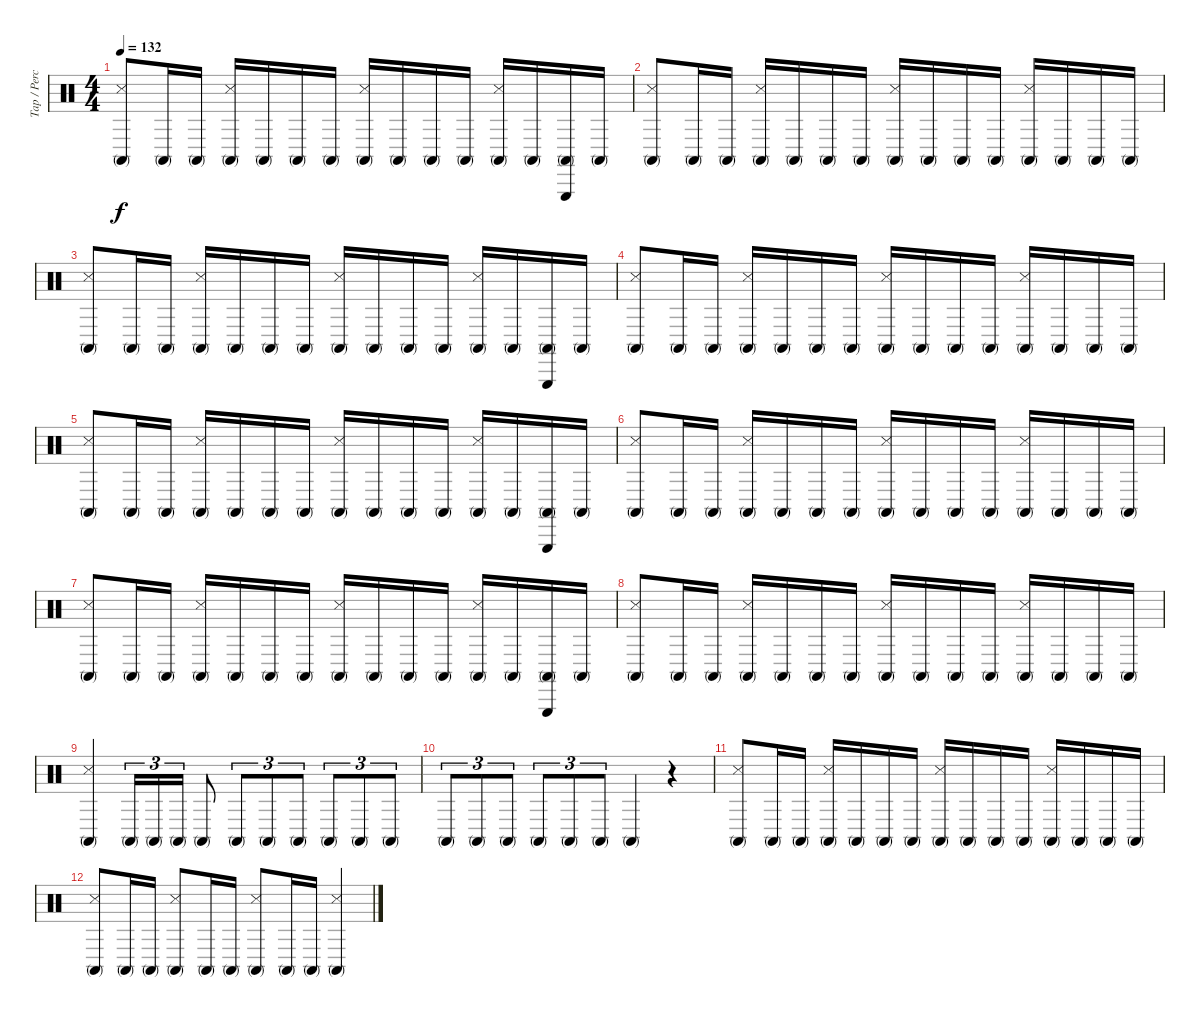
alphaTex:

\track ("Tap / Percussion" "Tap / Perc") {instrument percussion}
\staff {score}
\articulation defaults
\ts (4 4)
\tempo 132
\clef neutral
\ks c
("Conga high (mute)" "Snare (side stick) 3").8{dy f} "Conga high (mute)".16 "Conga high (mute)".16 ("Conga high (mute)" "Snare (side stick) 3").16 "Conga high (mute)".16 "Conga high (mute)".16 "Conga high (mute)".16 ("Conga high (mute)" "Snare (side stick) 3").16 "Conga high (mute)".16 "Conga high (mute)".16 "Conga high (mute)".16 ("Conga high (mute)" "Snare (side stick) 3").16 "Conga high (mute)".16 ("Conga high (mute)" "Triangle (hit)").16 "Conga high (mute)".16 |
("Conga high (mute)" "Snare (side stick) 3").8 "Conga high (mute)".16 "Conga high (mute)".16 ("Conga high (mute)" "Snare (side stick) 3").16 "Conga high (mute)".16 "Conga high (mute)".16 "Conga high (mute)".16 ("Conga high (mute)" "Snare (side stick) 3").16 "Conga high (mute)".16 "Conga high (mute)".16 "Conga high (mute)".16 ("Conga high (mute)" "Snare (side stick) 3").16 "Conga high (mute)".16 "Conga high (mute)".16 "Conga high (mute)".16 |
("Conga high (mute)" "Snare (side stick) 3").8 "Conga high (mute)".16 "Conga high (mute)".16 ("Conga high (mute)" "Snare (side stick) 3").16 "Conga high (mute)".16 "Conga high (mute)".16 "Conga high (mute)".16 ("Conga high (mute)" "Snare (side stick) 3").16 "Conga high (mute)".16 "Conga high (mute)".16 "Conga high (mute)".16 ("Conga high (mute)" "Snare (side stick) 3").16 "Conga high (mute)".16 ("Conga high (mute)" "Triangle (hit)").16 "Conga high (mute)".16 |
("Conga high (mute)" "Snare (side stick) 3").8 "Conga high (mute)".16 "Conga high (mute)".16 ("Conga high (mute)" "Snare (side stick) 3").16 "Conga high (mute)".16 "Conga high (mute)".16 "Conga high (mute)".16 ("Conga high (mute)" "Snare (side stick) 3").16 "Conga high (mute)".16 "Conga high (mute)".16 "Conga high (mute)".16 ("Conga high (mute)" "Snare (side stick) 3").16 "Conga high (mute)".16 "Conga high (mute)".16 "Conga high (mute)".16 |
("Conga high (mute)" "Snare (side stick) 3").8 "Conga high (mute)".16 "Conga high (mute)".16 ("Conga high (mute)" "Snare (side stick) 3").16 "Conga high (mute)".16 "Conga high (mute)".16 "Conga high (mute)".16 ("Conga high (mute)" "Snare (side stick) 3").16 "Conga high (mute)".16 "Conga high (mute)".16 "Conga high (mute)".16 ("Conga high (mute)" "Snare (side stick) 3").16 "Conga high (mute)".16 ("Conga high (mute)" "Triangle (hit)").16 "Conga high (mute)".16 |
("Conga high (mute)" "Snare (side stick) 3").8 "Conga high (mute)".16 "Conga high (mute)".16 ("Conga high (mute)" "Snare (side stick) 3").16 "Conga high (mute)".16 "Conga high (mute)".16 "Conga high (mute)".16 ("Conga high (mute)" "Snare (side stick) 3").16 "Conga high (mute)".16 "Conga high (mute)".16 "Conga high (mute)".16 ("Conga high (mute)" "Snare (side stick) 3").16 "Conga high (mute)".16 "Conga high (mute)".16 "Conga high (mute)".16 |
("Conga high (mute)" "Snare (side stick) 3").8 "Conga high (mute)".16 "Conga high (mute)".16 ("Conga high (mute)" "Snare (side stick) 3").16 "Conga high (mute)".16 "Conga high (mute)".16 "Conga high (mute)".16 ("Conga high (mute)" "Snare (side stick) 3").16 "Conga high (mute)".16 "Conga high (mute)".16 "Conga high (mute)".16 ("Conga high (mute)" "Snare (side stick) 3").16 "Conga high (mute)".16 ("Conga high (mute)" "Triangle (hit)").16 "Conga high (mute)".16 |
("Conga high (mute)" "Snare (side stick) 3").8 "Conga high (mute)".16 "Conga high (mute)".16 ("Conga high (mute)" "Snare (side stick) 3").16 "Conga high (mute)".16 "Conga high (mute)".16 "Conga high (mute)".16 ("Conga high (mute)" "Snare (side stick) 3").16 "Conga high (mute)".16 "Conga high (mute)".16 "Conga high (mute)".16 ("Conga high (mute)" "Snare (side stick) 3").16 "Conga high (mute)".16 "Conga high (mute)".16 "Conga high (mute)".16 |
("Conga high (mute)" "Snare (side stick) 3").4 "Conga high (mute)".16{tu (3 2)} "Conga high (mute)".16{tu (3 2)} "Conga high (mute)".16{tu (3 2)} "Conga high (mute)".8 "Conga high (mute)".8{tu (3 2)} "Conga high (mute)".8{tu (3 2)} "Conga high (mute)".8{tu (3 2)} "Conga high (mute)".8{tu (3 2)} "Conga high (mute)".8{tu (3 2)} "Conga high (mute)".8{tu (3 2)} |
"Conga high (mute)".8{tu (3 2)} "Conga high (mute)".8{tu (3 2)} "Conga high (mute)".8{tu (3 2)} "Conga high (mute)".8{tu (3 2)} "Conga high (mute)".8{tu (3 2)} "Conga high (mute)".8{tu (3 2)} "Conga high (mute)".4 r.4 |
("Conga high (mute)" "Snare (side stick) 3").8 "Conga high (mute)".16 "Conga high (mute)".16 ("Conga high (mute)" "Snare (side stick) 3").16 "Conga high (mute)".16 "Conga high (mute)".16 "Conga high (mute)".16 ("Conga high (mute)" "Snare (side stick) 3").16 "Conga high (mute)".16 "Conga high (mute)".16 "Conga high (mute)".16 ("Conga high (mute)" "Snare (side stick) 3").16 "Conga high (mute)".16 "Conga high (mute)".16 "Conga high (mute)".16 |
("Conga high (mute)" "Snare (side stick) 3").8 "Conga high (mute)".16 "Conga high (mute)".16 ("Conga high (mute)" "Snare (side stick) 3").8 "Conga high (mute)".16 "Conga high (mute)".16 ("Conga high (mute)" "Snare (side stick) 3").8 "Conga high (mute)".16 "Conga high (mute)".16 ("Conga high (mute)" "Snare (side stick) 3").4
